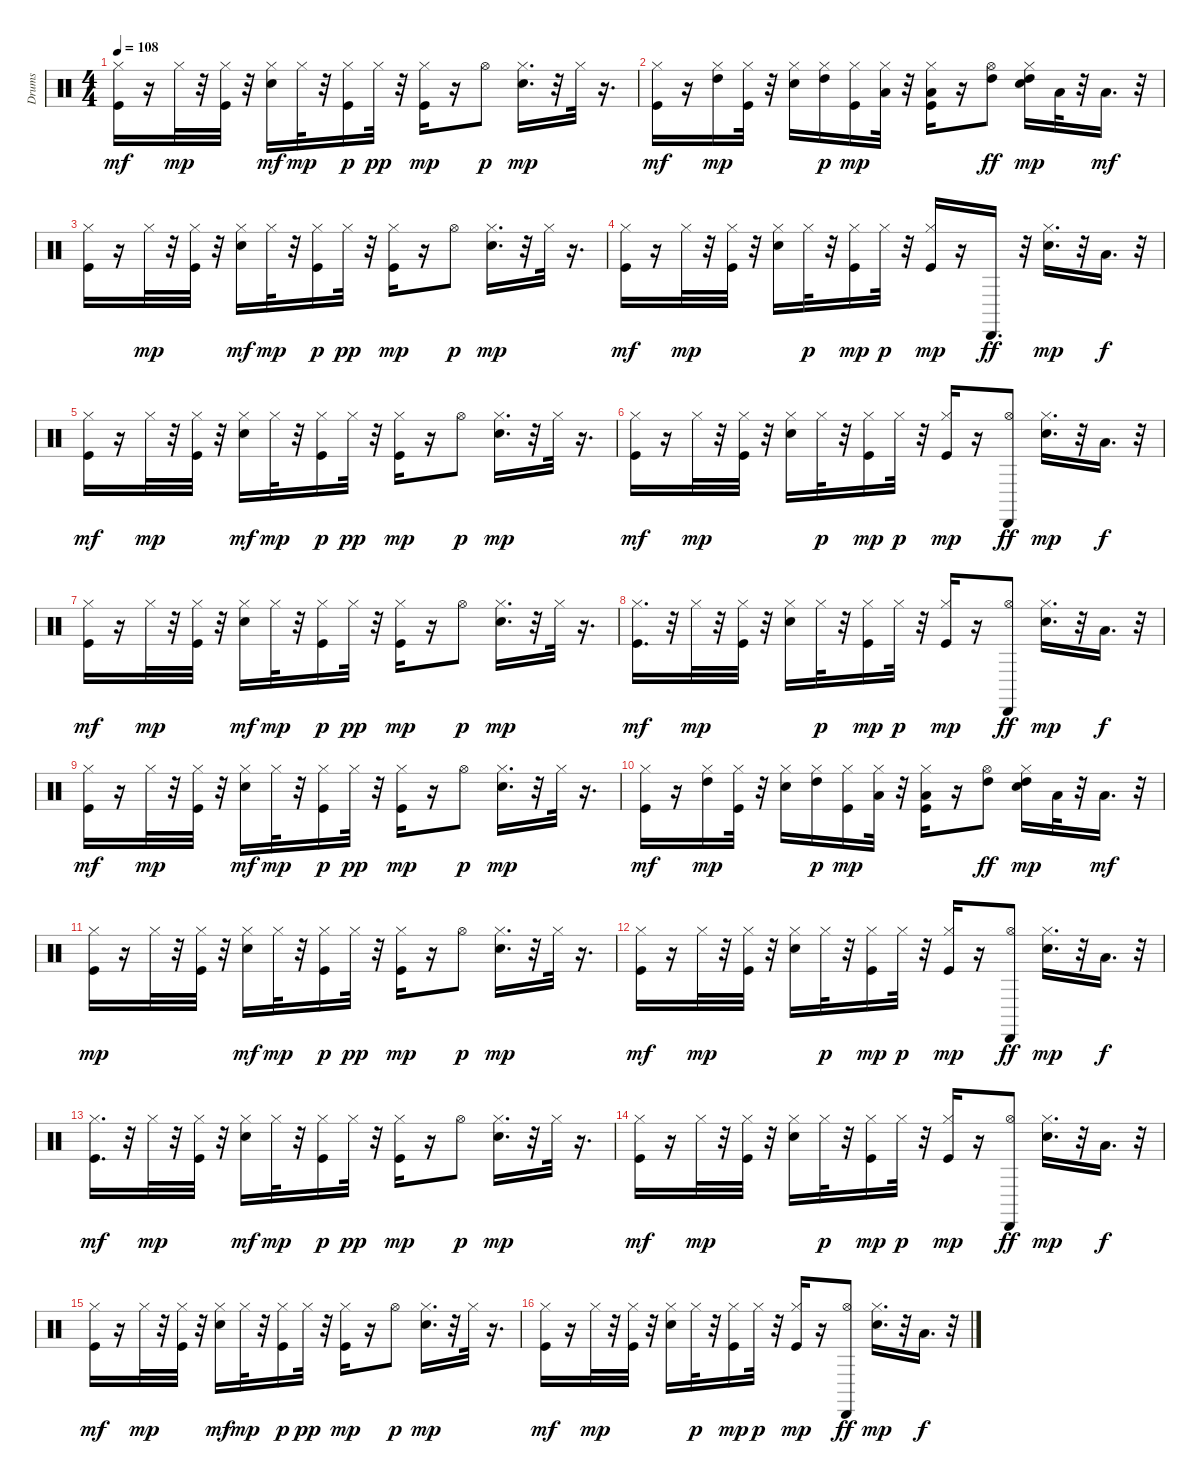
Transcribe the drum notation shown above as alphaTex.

\track ("Drums" "Drums") {instrument percussion}
\staff {score}
\articulation defaults
\ts (4 4)
\tempo 108
\clef neutral
\ks c
("Hi-Hat (closed)" "Kick (hit)").16{dy mf} r.16 "Hi-Hat (closed)".32{dy mp} r.32 ("Hi-Hat (closed)" "Kick (hit)").32 r.32 ("Hi-Hat (closed)" "Snare (hit) 2").16{dy mf} "Hi-Hat (closed)".32{dy mp} r.32 ("Hi-Hat (closed)" "Kick (hit)").16{dy p} "Hi-Hat (closed)".32{dy pp} r.32 ("Hi-Hat (closed)" "Kick (hit)").16{dy mp} r.16 "Hi-Hat (open)".8{dy p} ("Hi-Hat (closed)" "Snare (hit) 2").16{d dy mp} r.32 "Hi-Hat (closed)".32 r.16{d} |
("Hi-Hat (closed)" "Kick (hit)").16{dy mf} r.16 ("Hi-Hat (closed)" "High Tom (hit)").16{dy mp} ("Hi-Hat (closed)" "Kick (hit)").32 r.32 ("Hi-Hat (closed)" "Snare (hit) 2").16 ("Hi-Hat (closed)" "High Tom (hit)").16{dy p} ("Hi-Hat (closed)" "Kick (hit)").16{dy mp} ("Hi-Hat (closed)" "Low Tom (hit)").32 r.32 ("Hi-Hat (closed)" "Low Floor Tom (hit)" "Kick (hit)").16 r.16 ("Hi-Hat (open)" "High Tom (hit)").8{dy ff} ("Hi-Hat (closed)" "Snare (hit) 2" "High Tom (hit)").16{dy mp} "Low Tom (hit)".32 r.32 "Low Floor Tom (hit)".16{d dy mf} r.32 |
("Hi-Hat (closed)" "Kick (hit)").16 r.16 "Hi-Hat (closed)".32{dy mp} r.32 ("Hi-Hat (closed)" "Kick (hit)").32 r.32 ("Hi-Hat (closed)" "Snare (hit) 2").16{dy mf} "Hi-Hat (closed)".32{dy mp} r.32 ("Hi-Hat (closed)" "Kick (hit)").16{dy p} "Hi-Hat (closed)".32{dy pp} r.32 ("Hi-Hat (closed)" "Kick (hit)").16{dy mp} r.16 "Hi-Hat (open)".8{dy p} ("Hi-Hat (closed)" "Snare (hit) 2").16{d dy mp} r.32 "Hi-Hat (closed)".32 r.16{d} |
("Hi-Hat (closed)" "Kick (hit)").16{dy mf} r.16 "Hi-Hat (closed)".32{dy mp} r.32 ("Hi-Hat (closed)" "Kick (hit)").32 r.32 ("Hi-Hat (closed)" "Snare (hit) 2").16 "Hi-Hat (closed)".32{dy p} r.32 ("Hi-Hat (closed)" "Kick (hit)").16{dy mp} "Hi-Hat (closed)".32{dy p} r.32 ("Hi-Hat (closed)" "Kick (hit)").16{dy mp} r.16 "Cabasa (hit)".16{d dy ff} r.32 ("Hi-Hat (closed)" "Snare (hit) 2").16{d dy mp} r.32 "Low Floor Tom (hit)".16{d dy f} r.32 |
("Hi-Hat (closed)" "Kick (hit)").16{dy mf} r.16 "Hi-Hat (closed)".32{dy mp} r.32 ("Hi-Hat (closed)" "Kick (hit)").32 r.32 ("Hi-Hat (closed)" "Snare (hit) 2").16{dy mf} "Hi-Hat (closed)".32{dy mp} r.32 ("Hi-Hat (closed)" "Kick (hit)").16{dy p} "Hi-Hat (closed)".32{dy pp} r.32 ("Hi-Hat (closed)" "Kick (hit)").16{dy mp} r.16 "Hi-Hat (open)".8{dy p} ("Hi-Hat (closed)" "Snare (hit) 2").16{d dy mp} r.32 "Hi-Hat (closed)".32 r.16{d} |
("Hi-Hat (closed)" "Kick (hit)").16{dy mf} r.16 "Hi-Hat (closed)".32{dy mp} r.32 ("Hi-Hat (closed)" "Kick (hit)").32 r.32 ("Hi-Hat (closed)" "Snare (hit) 2").16 "Hi-Hat (closed)".32{dy p} r.32 ("Hi-Hat (closed)" "Kick (hit)").16{dy mp} "Hi-Hat (closed)".32{dy p} r.32 ("Hi-Hat (closed)" "Kick (hit)").16{dy mp} r.16 ("Hi-Hat (open)" "Cabasa (hit)").8{dy ff} ("Hi-Hat (closed)" "Snare (hit) 2").16{d dy mp} r.32 "Low Floor Tom (hit)".16{d dy f} r.32 |
("Hi-Hat (closed)" "Kick (hit)").16{dy mf} r.16 "Hi-Hat (closed)".32{dy mp} r.32 ("Hi-Hat (closed)" "Kick (hit)").32 r.32 ("Hi-Hat (closed)" "Snare (hit) 2").16{dy mf} "Hi-Hat (closed)".32{dy mp} r.32 ("Hi-Hat (closed)" "Kick (hit)").16{dy p} "Hi-Hat (closed)".32{dy pp} r.32 ("Hi-Hat (closed)" "Kick (hit)").16{dy mp} r.16 "Hi-Hat (open)".8{dy p} ("Hi-Hat (closed)" "Snare (hit) 2").16{d dy mp} r.32 "Hi-Hat (closed)".32 r.16{d} |
("Hi-Hat (closed)" "Kick (hit)").16{d dy mf} r.32 "Hi-Hat (closed)".32{dy mp} r.32 ("Hi-Hat (closed)" "Kick (hit)").32 r.32 ("Hi-Hat (closed)" "Snare (hit) 2").16 "Hi-Hat (closed)".32{dy p} r.32 ("Hi-Hat (closed)" "Kick (hit)").16{dy mp} "Hi-Hat (closed)".32{dy p} r.32 ("Hi-Hat (closed)" "Kick (hit)").16{dy mp} r.16 ("Hi-Hat (open)" "Cabasa (hit)").8{dy ff} ("Hi-Hat (closed)" "Snare (hit) 2").16{d dy mp} r.32 "Low Floor Tom (hit)".16{d dy f} r.32 |
("Hi-Hat (closed)" "Kick (hit)").16{dy mf} r.16 "Hi-Hat (closed)".32{dy mp} r.32 ("Hi-Hat (closed)" "Kick (hit)").32 r.32 ("Hi-Hat (closed)" "Snare (hit) 2").16{dy mf} "Hi-Hat (closed)".32{dy mp} r.32 ("Hi-Hat (closed)" "Kick (hit)").16{dy p} "Hi-Hat (closed)".32{dy pp} r.32 ("Hi-Hat (closed)" "Kick (hit)").16{dy mp} r.16 "Hi-Hat (open)".8{dy p} ("Hi-Hat (closed)" "Snare (hit) 2").16{d dy mp} r.32 "Hi-Hat (closed)".32 r.16{d} |
("Hi-Hat (closed)" "Kick (hit)").16{dy mf} r.16 ("Hi-Hat (closed)" "High Tom (hit)").16{dy mp} ("Hi-Hat (closed)" "Kick (hit)").32 r.32 ("Hi-Hat (closed)" "Snare (hit) 2").16 ("Hi-Hat (closed)" "High Tom (hit)").16{dy p} ("Hi-Hat (closed)" "Kick (hit)").16{dy mp} ("Hi-Hat (closed)" "Low Tom (hit)").32 r.32 ("Kick (hit)" "Low Floor Tom (hit)" "Hi-Hat (closed)").16 r.16 ("Hi-Hat (open)" "High Tom (hit)").8{dy ff} ("Hi-Hat (closed)" "Snare (hit) 2" "High Tom (hit)").16{dy mp} "Low Tom (hit)".32 r.32 "Low Floor Tom (hit)".16{d dy mf} r.32 |
("Kick (hit)" "Hi-Hat (closed)").16{dy mp} r.16 "Hi-Hat (closed)".32 r.32 ("Hi-Hat (closed)" "Kick (hit)").32 r.32 ("Hi-Hat (closed)" "Snare (hit) 2").16{dy mf} "Hi-Hat (closed)".32{dy mp} r.32 ("Hi-Hat (closed)" "Kick (hit)").16{dy p} "Hi-Hat (closed)".32{dy pp} r.32 ("Hi-Hat (closed)" "Kick (hit)").16{dy mp} r.16 "Hi-Hat (open)".8{dy p} ("Hi-Hat (closed)" "Snare (hit) 2").16{d dy mp} r.32 "Hi-Hat (closed)".32 r.16{d} |
("Hi-Hat (closed)" "Kick (hit)").16{dy mf} r.16 "Hi-Hat (closed)".32{dy mp} r.32 ("Hi-Hat (closed)" "Kick (hit)").32 r.32 ("Hi-Hat (closed)" "Snare (hit) 2").16 "Hi-Hat (closed)".32{dy p} r.32 ("Hi-Hat (closed)" "Kick (hit)").16{dy mp} "Hi-Hat (closed)".32{dy p} r.32 ("Hi-Hat (closed)" "Kick (hit)").16{dy mp} r.16 ("Hi-Hat (open)" "Cabasa (hit)").8{dy ff} ("Hi-Hat (closed)" "Snare (hit) 2").16{d dy mp} r.32 "Low Floor Tom (hit)".16{d dy f} r.32 |
("Hi-Hat (closed)" "Kick (hit)").16{d dy mf} r.32 "Hi-Hat (closed)".32{dy mp} r.32 ("Hi-Hat (closed)" "Kick (hit)").32 r.32 ("Hi-Hat (closed)" "Snare (hit) 2").16{dy mf} "Hi-Hat (closed)".32{dy mp} r.32 ("Hi-Hat (closed)" "Kick (hit)").16{dy p} "Hi-Hat (closed)".32{dy pp} r.32 ("Hi-Hat (closed)" "Kick (hit)").16{dy mp} r.16 "Hi-Hat (open)".8{dy p} ("Hi-Hat (closed)" "Snare (hit) 2").16{d dy mp} r.32 "Hi-Hat (closed)".32 r.16{d} |
("Hi-Hat (closed)" "Kick (hit)").16{dy mf} r.16 "Hi-Hat (closed)".32{dy mp} r.32 ("Hi-Hat (closed)" "Kick (hit)").32 r.32 ("Hi-Hat (closed)" "Snare (hit) 2").16 "Hi-Hat (closed)".32{dy p} r.32 ("Hi-Hat (closed)" "Kick (hit)").16{dy mp} "Hi-Hat (closed)".32{dy p} r.32 ("Hi-Hat (closed)" "Kick (hit)").16{dy mp} r.16 ("Hi-Hat (open)" "Cabasa (hit)").8{dy ff} ("Hi-Hat (closed)" "Snare (hit) 2").16{d dy mp} r.32 "Low Floor Tom (hit)".16{d dy f} r.32 |
("Hi-Hat (closed)" "Kick (hit)").16{dy mf} r.16 "Hi-Hat (closed)".32{dy mp} r.32 ("Hi-Hat (closed)" "Kick (hit)").32 r.32 ("Hi-Hat (closed)" "Snare (hit) 2").16{dy mf} "Hi-Hat (closed)".32{dy mp} r.32 ("Kick (hit)" "Hi-Hat (closed)").16{dy p} "Hi-Hat (closed)".32{dy pp} r.32 ("Hi-Hat (closed)" "Kick (hit)").16{dy mp} r.16 "Hi-Hat (open)".8{dy p} ("Hi-Hat (closed)" "Snare (hit) 2").16{d dy mp} r.32 "Hi-Hat (closed)".32 r.16{d} |
("Hi-Hat (closed)" "Kick (hit)").16{dy mf} r.16 "Hi-Hat (closed)".32{dy mp} r.32 ("Hi-Hat (closed)" "Kick (hit)").32 r.32 ("Hi-Hat (closed)" "Snare (hit) 2").16 "Hi-Hat (closed)".32{dy p} r.32 ("Hi-Hat (closed)" "Kick (hit)").16{dy mp} "Hi-Hat (closed)".32{dy p} r.32 ("Hi-Hat (closed)" "Kick (hit)").16{dy mp} r.16 ("Hi-Hat (open)" "Cabasa (hit)").8{dy ff} ("Hi-Hat (closed)" "Snare (hit) 2").16{d dy mp} r.32 "Low Floor Tom (hit)".16{d dy f} r.32
